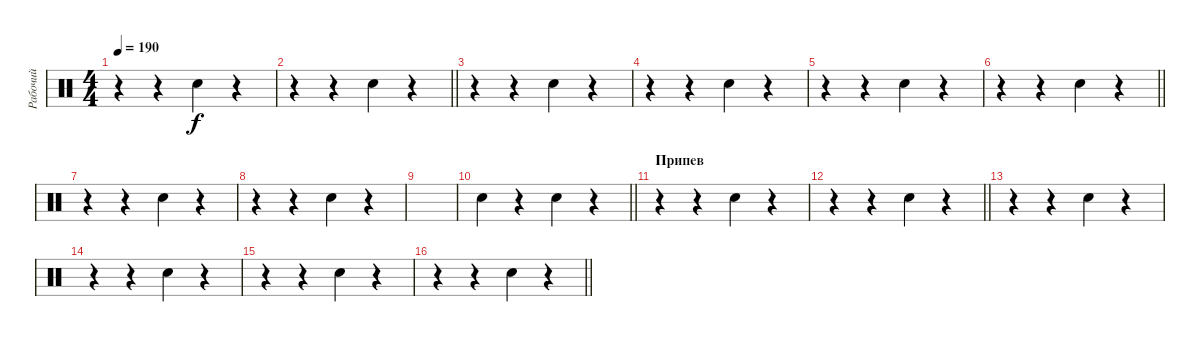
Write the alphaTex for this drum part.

\track ("Рабочий" "Рабочий") {instrument percussion}
\staff {score}
\articulation defaults
\ts (4 4)
\tempo 190
\clef neutral
\ks c
r.4{dy f} r.4 "Snare (hit) 2".4 r.4 |
\barLineRight lightlight
r.4 r.4 "Snare (hit) 2".4 r.4 |
r.4 r.4 "Snare (hit) 2".4 r.4 |
r.4 r.4 "Snare (hit) 2".4 r.4 |
r.4 r.4 "Snare (hit) 2".4 r.4 |
\barLineRight lightlight
r.4 r.4 "Snare (hit) 2".4 r.4 |
r.4 r.4 "Snare (hit) 2".4 r.4 |
r.4 r.4 "Snare (hit) 2".4 r.4 |
|
\barLineRight lightlight "Snare (hit) 2".4
r.4 "Snare (hit) 2".4 r.4 |
\section ("" "Припев")
r.4 r.4 "Snare (hit) 2".4 r.4 |
\barLineRight lightlight
r.4 r.4 "Snare (hit) 2".4 r.4 |
r.4 r.4 "Snare (hit) 2".4 r.4 |
r.4 r.4 "Snare (hit) 2".4 r.4 |
r.4 r.4 "Snare (hit) 2".4 r.4 |
\barLineRight lightlight
r.4 r.4 "Snare (hit) 2".4 r.4
